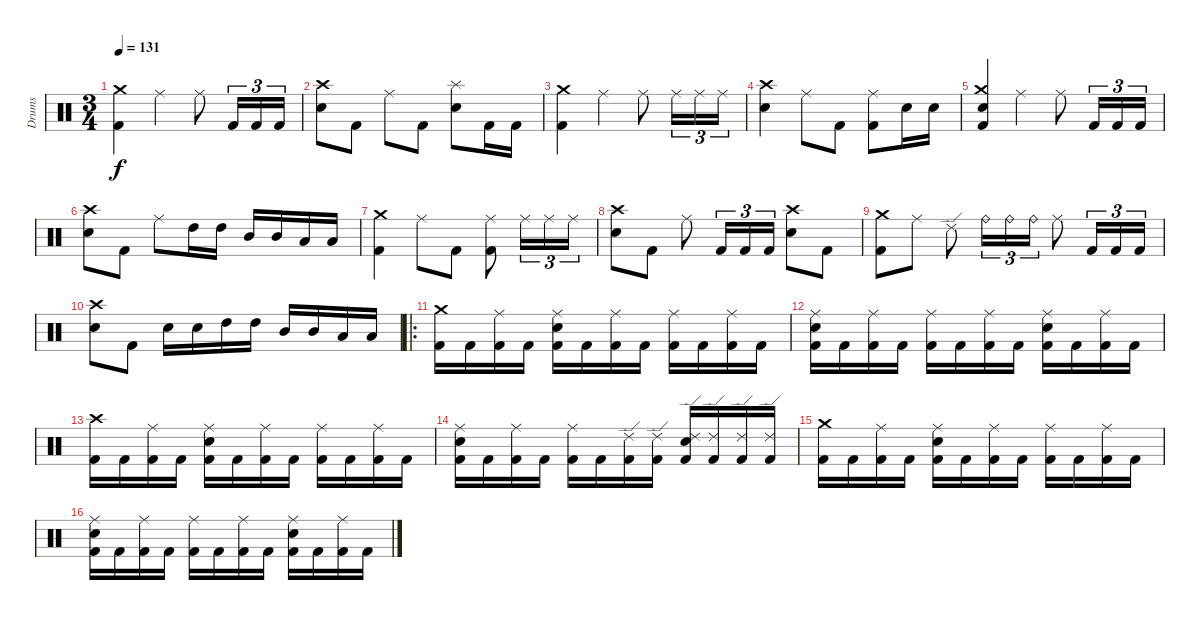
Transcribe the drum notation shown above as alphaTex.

\track ("Drums" "Drums") {instrument percussion}
\staff {score}
\articulation defaults
\ts (3 4)
\tempo 131
\clef neutral
\ks c
("Kick (hit) 2" "Crash medium (hit)").4{dy f} "Ride (middle)".4 "Ride (middle)".8 "Kick (hit) 2".16{tu (3 2)} "Kick (hit) 2".16{tu (3 2)} "Kick (hit) 2".16{tu (3 2)} |
("Electric Snare (hit)" "Crash high (hit)").8 "Kick (hit) 2".8 "Ride (middle)".8 "Kick (hit) 2".8 ("Electric Snare (hit)" "Splash (hit)").8 "Kick (hit) 2".16 "Kick (hit) 2".16 |
("Kick (hit) 2" "Crash medium (hit)").4 "Ride (middle)".4 "Ride (middle)".8 "Ride (middle)".16{tu (3 2)} "Ride (middle)".16{tu (3 2)} "Ride (middle)".16{tu (3 2)} |
("Electric Snare (hit)" "Crash high (hit)").4 "Ride (middle)".8 "Kick (hit) 2".8 ("Kick (hit) 2" "Ride (middle)").8 "Electric Snare (hit)".16 "Electric Snare (hit)".16 |
("Kick (hit) 2" "Electric Snare (hit)" "Crash medium (hit)").4 "Ride (middle)".4 "Ride (middle)".8 "Kick (hit) 2".16{tu (3 2)} "Kick (hit) 2".16{tu (3 2)} "Kick (hit) 2".16{tu (3 2)} |
("Electric Snare (hit)" "Crash high (hit)").8 "Kick (hit) 2".8 "Ride (middle)".8 "High Tom (hit)".16 "High Tom (hit)".16 "Mid Tom (hit)".16 "Mid Tom (hit)".16 "Low Tom (hit)".16 "Low Tom (hit)".16 |
("Kick (hit) 2" "Crash medium (hit)").4 "Ride (middle)".8 "Kick (hit) 2".8 ("Kick (hit) 2" "Ride (middle)").8 "Ride (middle)".16{tu (3 2)} "Ride (middle)".16{tu (3 2)} "Ride (middle)".16{tu (3 2)} |
("Electric Snare (hit)" "Crash high (hit)").8 "Kick (hit) 2".8 "Ride (middle)".8 "Kick (hit) 2".16{tu (3 2)} "Kick (hit) 2".16{tu (3 2)} "Kick (hit) 2".16{tu (3 2)} ("Electric Snare (hit)" "Crash high (hit)").8 "Kick (hit) 2".8 |
("Kick (hit) 2" "Crash medium (hit)").8 "Ride (middle)".8 "Ride (edge) 2".8 "Ride (bell)".16{tu (3 2)} "Ride (bell)".16{tu (3 2)} "Ride (bell)".16{tu (3 2)} "Ride (middle)".8 "Kick (hit) 2".16{tu (3 2)} "Kick (hit) 2".16{tu (3 2)} "Kick (hit) 2".16{tu (3 2)} |
("Electric Snare (hit)" "Crash high (hit)").8 "Kick (hit) 2".8 "Electric Snare (hit)".16 "Electric Snare (hit)".16 "High Tom (hit)".16 "High Tom (hit)".16 "Mid Tom (hit)".16 "Mid Tom (hit)".16 "Low Tom (hit)".16 "Low Tom (hit)".16 |
\ro
("Kick (hit) 2" "Crash medium (hit)").16 "Kick (hit) 2".16 ("Kick (hit) 2" "Ride (middle)").16 "Kick (hit) 2".16 ("Kick (hit) 2" "Electric Snare (hit)" "Ride (middle)").16 "Kick (hit) 2".16 ("Kick (hit) 2" "Ride (middle)").16 "Kick (hit) 2".16 ("Kick (hit) 2" "Ride (middle)").16 "Kick (hit) 2".16 ("Kick (hit) 2" "Ride (middle)").16 "Kick (hit) 2".16 |
("Kick (hit) 2" "Electric Snare (hit)" "Ride (middle)").16 "Kick (hit) 2".16 ("Kick (hit) 2" "Ride (middle)").16 "Kick (hit) 2".16 ("Kick (hit) 2" "Ride (middle)").16 "Kick (hit) 2".16 ("Kick (hit) 2" "Ride (middle)").16 "Kick (hit) 2".16 ("Kick (hit) 2" "Electric Snare (hit)" "Ride (middle)").16 "Kick (hit) 2".16 ("Kick (hit) 2" "Ride (middle)").16 "Kick (hit) 2".16 |
("Kick (hit) 2" "Crash high (hit)").16 "Kick (hit) 2".16 ("Kick (hit) 2" "Ride (middle)").16 "Kick (hit) 2".16 ("Kick (hit) 2" "Electric Snare (hit)" "Ride (middle)").16 "Kick (hit) 2".16 ("Kick (hit) 2" "Ride (middle)").16 "Kick (hit) 2".16 ("Kick (hit) 2" "Ride (middle)").16 "Kick (hit) 2".16 ("Kick (hit) 2" "Ride (middle)").16 "Kick (hit) 2".16 |
("Kick (hit) 2" "Electric Snare (hit)" "Ride (middle)").16 "Kick (hit) 2".16 ("Kick (hit) 2" "Ride (middle)").16 "Kick (hit) 2".16 ("Kick (hit) 2" "Ride (middle)").16 "Kick (hit) 2".16 ("Kick (hit) 2" "Ride (edge) 2").16 ("Kick (hit) 2" "Ride (edge) 2").16 ("Kick (hit) 2" "Electric Snare (hit)" "Ride (edge) 2").16 ("Kick (hit) 2" "Ride (edge) 2").16 ("Kick (hit) 2" "Ride (edge) 2").16 ("Kick (hit) 2" "Ride (edge) 2").16 |
("Kick (hit) 2" "Crash medium (hit)").16 "Kick (hit) 2".16 ("Kick (hit) 2" "Ride (middle)").16 "Kick (hit) 2".16 ("Kick (hit) 2" "Electric Snare (hit)" "Ride (middle)").16 "Kick (hit) 2".16 ("Kick (hit) 2" "Ride (middle)").16 "Kick (hit) 2".16 ("Kick (hit) 2" "Ride (middle)").16 "Kick (hit) 2".16 ("Kick (hit) 2" "Ride (middle)").16 "Kick (hit) 2".16 |
("Kick (hit) 2" "Electric Snare (hit)" "Ride (middle)").16 "Kick (hit) 2".16 ("Kick (hit) 2" "Ride (middle)").16 "Kick (hit) 2".16 ("Kick (hit) 2" "Ride (middle)").16 "Kick (hit) 2".16 ("Kick (hit) 2" "Ride (middle)").16 "Kick (hit) 2".16 ("Kick (hit) 2" "Electric Snare (hit)" "Ride (middle)").16 "Kick (hit) 2".16 ("Kick (hit) 2" "Ride (middle)").16 "Kick (hit) 2".16
